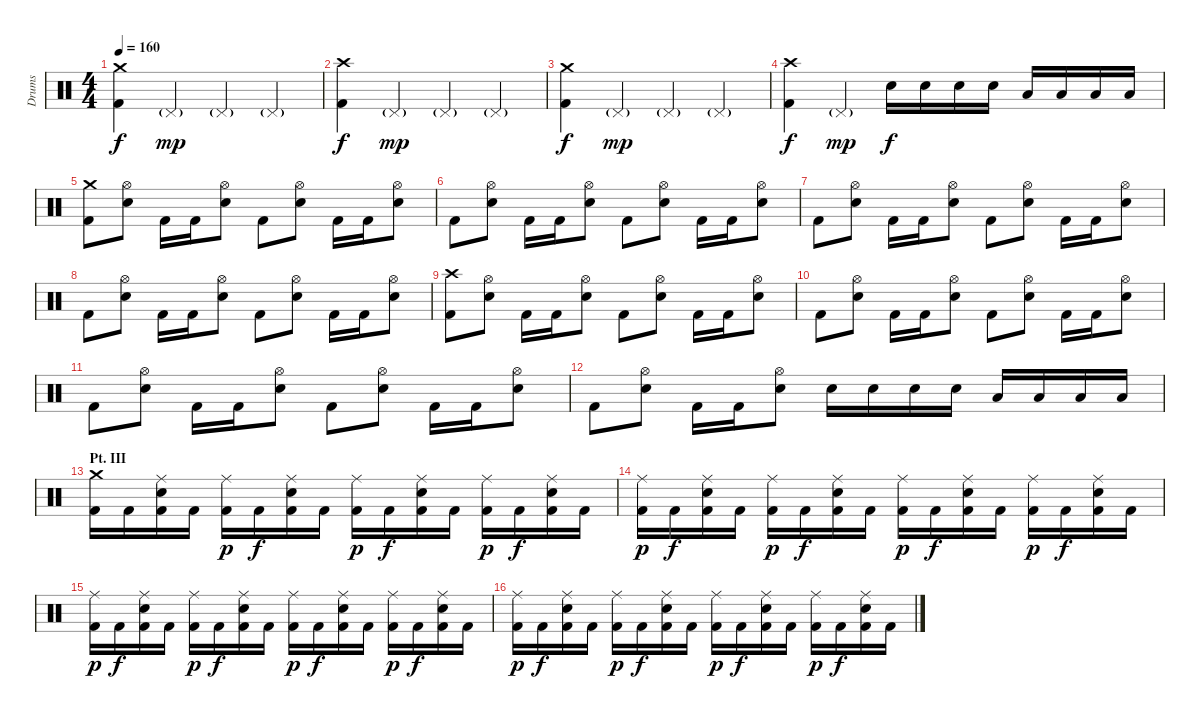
\track ("Drums" "Drums") {instrument percussion}
\staff {score}
\articulation defaults
\ts (4 4)
\tempo 160
\clef neutral
\ks c
("Crash medium (hit)" "Kick (hit) 2").4{dy f} "Pedal Hi-Hat (hit)"{g}.4{dy mp} "Pedal Hi-Hat (hit)"{g}.4 "Pedal Hi-Hat (hit)"{g}.4 |
("Crash high (hit)" "Kick (hit) 2").4{dy f} "Pedal Hi-Hat (hit)"{g}.4{dy mp} "Pedal Hi-Hat (hit)"{g}.4 "Pedal Hi-Hat (hit)"{g}.4 |
("Crash medium (hit)" "Kick (hit) 2").4{dy f} "Pedal Hi-Hat (hit)"{g}.4{dy mp} "Pedal Hi-Hat (hit)"{g}.4 "Pedal Hi-Hat (hit)"{g}.4 |
("Crash high (hit)" "Kick (hit) 2").4{dy f} "Pedal Hi-Hat (hit)"{g}.4{dy mp} "Snare (hit) 2".16{dy f} "Snare (hit) 2".16 "Snare (hit) 2".16 "Snare (hit) 2".16 "Low Tom (hit)".16 "Low Tom (hit)".16 "Low Tom (hit)".16 "Low Tom (hit)".16 |
("Crash medium (hit)" "Kick (hit) 2").8 ("Hi-Hat (open)" "Snare (hit) 2").8 "Kick (hit) 2".16 "Kick (hit) 2".16 ("Hi-Hat (open)" "Snare (hit) 2").8 "Kick (hit) 2".8 ("Hi-Hat (open)" "Snare (hit) 2").8 "Kick (hit) 2".16 "Kick (hit) 2".16 ("Hi-Hat (open)" "Snare (hit) 2").8 |
"Kick (hit) 2".8 ("Hi-Hat (open)" "Snare (hit) 2").8 "Kick (hit) 2".16 "Kick (hit) 2".16 ("Hi-Hat (open)" "Snare (hit) 2").8 "Kick (hit) 2".8 ("Hi-Hat (open)" "Snare (hit) 2").8 "Kick (hit) 2".16 "Kick (hit) 2".16 ("Hi-Hat (open)" "Snare (hit) 2").8 |
"Kick (hit) 2".8 ("Hi-Hat (open)" "Snare (hit) 2").8 "Kick (hit) 2".16 "Kick (hit) 2".16 ("Hi-Hat (open)" "Snare (hit) 2").8 "Kick (hit) 2".8 ("Hi-Hat (open)" "Snare (hit) 2").8 "Kick (hit) 2".16 "Kick (hit) 2".16 ("Hi-Hat (open)" "Snare (hit) 2").8 |
"Kick (hit) 2".8 ("Hi-Hat (open)" "Snare (hit) 2").8 "Kick (hit) 2".16 "Kick (hit) 2".16 ("Hi-Hat (open)" "Snare (hit) 2").8 "Kick (hit) 2".8 ("Hi-Hat (open)" "Snare (hit) 2").8 "Kick (hit) 2".16 "Kick (hit) 2".16 ("Hi-Hat (open)" "Snare (hit) 2").8 |
("Crash high (hit)" "Kick (hit) 2").8 ("Hi-Hat (open)" "Snare (hit) 2").8 "Kick (hit) 2".16 "Kick (hit) 2".16 ("Hi-Hat (open)" "Snare (hit) 2").8 "Kick (hit) 2".8 ("Hi-Hat (open)" "Snare (hit) 2").8 "Kick (hit) 2".16 "Kick (hit) 2".16 ("Hi-Hat (open)" "Snare (hit) 2").8 |
"Kick (hit) 2".8 ("Hi-Hat (open)" "Snare (hit) 2").8 "Kick (hit) 2".16 "Kick (hit) 2".16 ("Hi-Hat (open)" "Snare (hit) 2").8 "Kick (hit) 2".8 ("Hi-Hat (open)" "Snare (hit) 2").8 "Kick (hit) 2".16 "Kick (hit) 2".16 ("Hi-Hat (open)" "Snare (hit) 2").8 |
"Kick (hit) 2".8 ("Hi-Hat (open)" "Snare (hit) 2").8 "Kick (hit) 2".16 "Kick (hit) 2".16 ("Hi-Hat (open)" "Snare (hit) 2").8 "Kick (hit) 2".8 ("Hi-Hat (open)" "Snare (hit) 2").8 "Kick (hit) 2".16 "Kick (hit) 2".16 ("Hi-Hat (open)" "Snare (hit) 2").8 |
"Kick (hit) 2".8 ("Hi-Hat (open)" "Snare (hit) 2").8 "Kick (hit) 2".16 "Kick (hit) 2".16 ("Hi-Hat (open)" "Snare (hit) 2").8 "Snare (hit) 2".16 "Snare (hit) 2".16 "Snare (hit) 2".16 "Snare (hit) 2".16 "Low Tom (hit)".16 "Low Tom (hit)".16 "Low Tom (hit)".16 "Low Tom (hit)".16 |
\section ("" "Pt. III")
("Crash medium (hit)" "Kick (hit) 2").16 "Kick (hit) 2".16 ("Ride (middle)" "Snare (hit) 2" "Kick (hit) 2").16 "Kick (hit) 2".16 ("Ride (middle)" "Kick (hit) 2").16{dy p} "Kick (hit) 2".16{dy f} ("Ride (middle)" "Snare (hit) 2" "Kick (hit) 2").16 "Kick (hit) 2".16 ("Ride (middle)" "Kick (hit) 2").16{dy p} "Kick (hit) 2".16{dy f} ("Ride (middle)" "Snare (hit) 2" "Kick (hit) 2").16 "Kick (hit) 2".16 ("Ride (middle)" "Kick (hit) 2").16{dy p} "Kick (hit) 2".16{dy f} ("Ride (middle)" "Snare (hit) 2" "Kick (hit) 2").16 "Kick (hit) 2".16 |
("Ride (middle)" "Kick (hit) 2").16{dy p} "Kick (hit) 2".16{dy f} ("Ride (middle)" "Snare (hit) 2" "Kick (hit) 2").16 "Kick (hit) 2".16 ("Ride (middle)" "Kick (hit) 2").16{dy p} "Kick (hit) 2".16{dy f} ("Ride (middle)" "Snare (hit) 2" "Kick (hit) 2").16 "Kick (hit) 2".16 ("Ride (middle)" "Kick (hit) 2").16{dy p} "Kick (hit) 2".16{dy f} ("Ride (middle)" "Snare (hit) 2" "Kick (hit) 2").16 "Kick (hit) 2".16 ("Ride (middle)" "Kick (hit) 2").16{dy p} "Kick (hit) 2".16{dy f} ("Ride (middle)" "Snare (hit) 2" "Kick (hit) 2").16 "Kick (hit) 2".16 |
("Ride (middle)" "Kick (hit) 2").16{dy p} "Kick (hit) 2".16{dy f} ("Ride (middle)" "Snare (hit) 2" "Kick (hit) 2").16 "Kick (hit) 2".16 ("Ride (middle)" "Kick (hit) 2").16{dy p} "Kick (hit) 2".16{dy f} ("Ride (middle)" "Snare (hit) 2" "Kick (hit) 2").16 "Kick (hit) 2".16 ("Ride (middle)" "Kick (hit) 2").16{dy p} "Kick (hit) 2".16{dy f} ("Ride (middle)" "Snare (hit) 2" "Kick (hit) 2").16 "Kick (hit) 2".16 ("Ride (middle)" "Kick (hit) 2").16{dy p} "Kick (hit) 2".16{dy f} ("Ride (middle)" "Snare (hit) 2" "Kick (hit) 2").16 "Kick (hit) 2".16 |
("Ride (middle)" "Kick (hit) 2").16{dy p} "Kick (hit) 2".16{dy f} ("Ride (middle)" "Snare (hit) 2" "Kick (hit) 2").16 "Kick (hit) 2".16 ("Ride (middle)" "Kick (hit) 2").16{dy p} "Kick (hit) 2".16{dy f} ("Ride (middle)" "Snare (hit) 2" "Kick (hit) 2").16 "Kick (hit) 2".16 ("Ride (middle)" "Kick (hit) 2").16{dy p} "Kick (hit) 2".16{dy f} ("Ride (middle)" "Snare (hit) 2" "Kick (hit) 2").16 "Kick (hit) 2".16 ("Ride (middle)" "Kick (hit) 2").16{dy p} "Kick (hit) 2".16{dy f} ("Ride (middle)" "Snare (hit) 2" "Kick (hit) 2").16 "Kick (hit) 2".16
